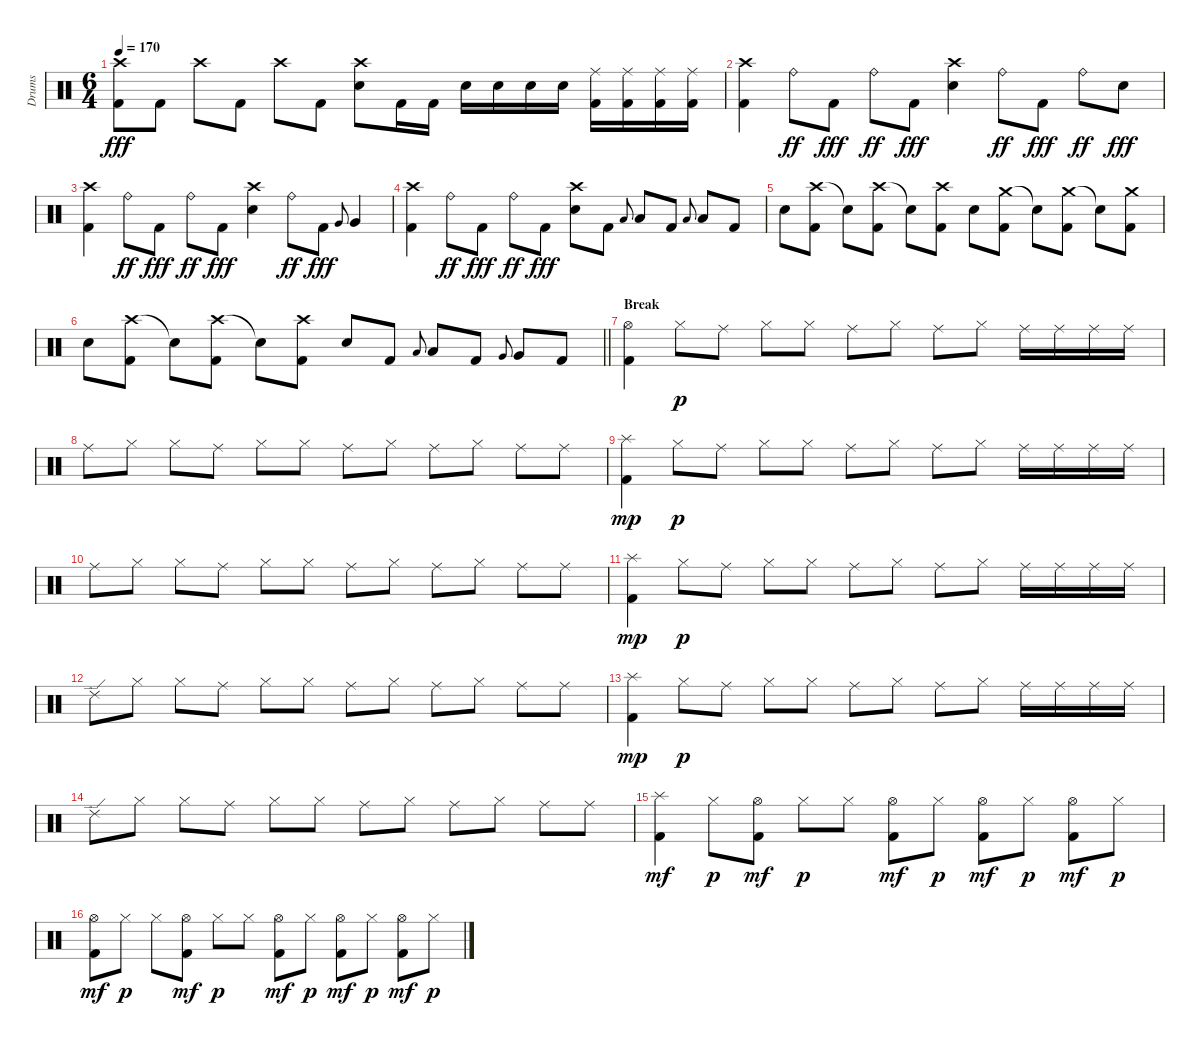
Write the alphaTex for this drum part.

\track ("Drums" "Drums") {instrument percussion}
\staff {score}
\articulation defaults
\ts (6 4)
\tempo 170
\clef neutral
\ks c
("Crash high (hit)" "Kick (hit) 2").8{dy fff} "Kick (hit) 2".8 "Crash high (hit)".8 "Kick (hit) 2".8 "Crash high (hit)".8 "Kick (hit) 2".8 ("Crash high (hit)" "Snare (hit) 2").8 "Kick (hit) 2".16 "Kick (hit) 2".16 "Snare (hit) 2".16 "Snare (hit) 2".16 "Snare (hit) 2".16 "Snare (hit) 2".16 ("Ride (middle)" "Kick (hit) 2").16 ("Ride (middle)" "Kick (hit) 2").16 ("Ride (middle)" "Kick (hit) 2").16 ("Ride (middle)" "Kick (hit) 2").16 |
("Crash high (hit)" "Kick (hit) 2").4 "Ride (bell)".8{dy ff} "Kick (hit) 2".8{dy fff} "Ride (bell)".8{dy ff} "Kick (hit) 2".8{dy fff} ("Crash high (hit)" "Snare (hit) 2").4 "Ride (bell)".8{dy ff} "Kick (hit) 2".8{dy fff} "Ride (bell)".8{dy ff} "Snare (hit) 2".8{dy fff} |
("Crash high (hit)" "Kick (hit) 2").4 "Ride (bell)".8{dy ff} "Kick (hit) 2".8{dy fff} "Ride (bell)".8{dy ff} "Kick (hit) 2".8{dy fff} ("Crash high (hit)" "Snare (hit) 2").4 "Ride (bell)".8{dy ff} "Kick (hit) 2".8{dy fff} "Very Low Tom (hit)".8{gr onbeat} "Very Low Tom (hit)".4 |
("Crash high (hit)" "Kick (hit) 2").4 "Ride (bell)".8{dy ff} "Kick (hit) 2".8{dy fff} "Ride (bell)".8{dy ff} "Kick (hit) 2".8{dy fff} ("Crash high (hit)" "Snare (hit) 2").8 "Kick (hit) 2".8 "Low Tom (hit)".8{gr onbeat} "Low Tom (hit)".8 "Kick (hit) 2".8 "Low Tom (hit)".8{gr onbeat} "Low Tom (hit)".8 "Kick (hit) 2".8 |
"Snare (hit) 2".8 ("Crash high (hit)" "Kick (hit) 2").8 "Snare (hit)"{t}.8 ("Crash high (hit)" "Kick (hit) 2").8 "Snare (hit)"{t}.8 ("Crash high (hit)" "Kick (hit) 2").8 "Snare (hit) 2".8 ("Crash medium (hit)" "Kick (hit) 2").8 "Snare (hit)"{t}.8 ("Crash medium (hit)" "Kick (hit) 2").8 "Snare (hit)"{t}.8 ("Crash medium (hit)" "Kick (hit) 2").8 |
\barLineRight lightlight "Snare (hit) 2".8
("Crash high (hit)" "Kick (hit) 2").8 "Snare (hit)"{t}.8 ("Crash high (hit)" "Kick (hit) 2").8 "Snare (hit)"{t}.8 ("Crash high (hit)" "Kick (hit) 2").8 "Snare (hit) 2".8 "Kick (hit) 2".8 "Low Tom (hit)".8{gr onbeat} "Low Tom (hit)".8 "Kick (hit) 2".8 "Very Low Tom (hit)".8{gr onbeat} "Very Low Tom (hit)".8 "Kick (hit) 2".8 |
\section ("" "Break")
("Hi-Hat (open)" "Kick (hit) 2").4 "Hi-Hat (closed)".8{dy p} "Ride (middle)".8 "Hi-Hat (closed)".8 "Hi-Hat (closed)".8 "Ride (middle)".8 "Hi-Hat (closed)".8 "Ride (middle)".8 "Hi-Hat (closed)".8 "Ride (middle)".16 "Ride (middle)".16 "Ride (middle)".16 "Ride (middle)".16 |
"Ride (middle)".8 "Hi-Hat (closed)".8 "Hi-Hat (closed)".8 "Ride (middle)".8 "Hi-Hat (closed)".8 "Hi-Hat (closed)".8 "Ride (middle)".8 "Hi-Hat (closed)".8 "Ride (middle)".8 "Hi-Hat (closed)".8 "Ride (middle)".8 "Ride (middle)".8 |
("Splash (hit)" "Kick (hit) 2").4{dy mp} "Hi-Hat (closed)".8{dy p} "Ride (middle)".8 "Hi-Hat (closed)".8 "Hi-Hat (closed)".8 "Ride (middle)".8 "Hi-Hat (closed)".8 "Ride (middle)".8 "Hi-Hat (closed)".8 "Ride (middle)".16 "Ride (middle)".16 "Ride (middle)".16 "Ride (middle)".16 |
"Ride (middle)".8 "Hi-Hat (closed)".8 "Hi-Hat (closed)".8 "Ride (middle)".8 "Hi-Hat (closed)".8 "Hi-Hat (closed)".8 "Ride (middle)".8 "Hi-Hat (closed)".8 "Ride (middle)".8 "Hi-Hat (closed)".8 "Ride (middle)".8 "Ride (middle)".8 |
("Splash (hit)" "Kick (hit) 2").4{dy mp} "Hi-Hat (closed)".8{dy p} "Ride (middle)".8 "Hi-Hat (closed)".8 "Hi-Hat (closed)".8 "Ride (middle)".8 "Hi-Hat (closed)".8 "Ride (middle)".8 "Hi-Hat (closed)".8 "Ride (middle)".16 "Ride (middle)".16 "Ride (middle)".16 "Ride (middle)".16 |
"Ride (edge) 2".8 "Hi-Hat (closed)".8 "Hi-Hat (closed)".8 "Ride (middle)".8 "Hi-Hat (closed)".8 "Hi-Hat (closed)".8 "Ride (middle)".8 "Hi-Hat (closed)".8 "Ride (middle)".8 "Hi-Hat (closed)".8 "Ride (middle)".8 "Ride (middle)".8 |
("Splash (hit)" "Kick (hit) 2").4{dy mp} "Hi-Hat (closed)".8{dy p} "Ride (middle)".8 "Hi-Hat (closed)".8 "Hi-Hat (closed)".8 "Ride (middle)".8 "Hi-Hat (closed)".8 "Ride (middle)".8 "Hi-Hat (closed)".8 "Ride (middle)".16 "Ride (middle)".16 "Ride (middle)".16 "Ride (middle)".16 |
"Ride (edge) 2".8 "Hi-Hat (closed)".8 "Hi-Hat (closed)".8 "Ride (middle)".8 "Hi-Hat (closed)".8 "Hi-Hat (closed)".8 "Ride (middle)".8 "Hi-Hat (closed)".8 "Ride (middle)".8 "Hi-Hat (closed)".8 "Ride (middle)".8 "Ride (middle)".8 |
("Splash (hit)" "Kick (hit) 2").4{dy mf} "Hi-Hat (closed)".8{dy p} ("Hi-Hat (open)" "Kick (hit) 2").8{dy mf} "Hi-Hat (closed)".8{dy p} "Hi-Hat (closed)".8 ("Hi-Hat (open)" "Kick (hit) 2").8{dy mf} "Hi-Hat (closed)".8{dy p} ("Hi-Hat (open)" "Kick (hit) 2").8{dy mf} "Hi-Hat (closed)".8{dy p} ("Hi-Hat (open)" "Kick (hit) 2").8{dy mf} "Hi-Hat (closed)".8{dy p} |
("Hi-Hat (open)" "Kick (hit) 2").8{dy mf} "Hi-Hat (closed)".8{dy p} "Hi-Hat (closed)".8 ("Hi-Hat (open)" "Kick (hit) 2").8{dy mf} "Hi-Hat (closed)".8{dy p} "Hi-Hat (closed)".8 ("Hi-Hat (open)" "Kick (hit) 2").8{dy mf} "Hi-Hat (closed)".8{dy p} ("Hi-Hat (open)" "Kick (hit) 2").8{dy mf} "Hi-Hat (closed)".8{dy p} ("Hi-Hat (open)" "Kick (hit) 2").8{dy mf} "Hi-Hat (closed)".8{dy p}
